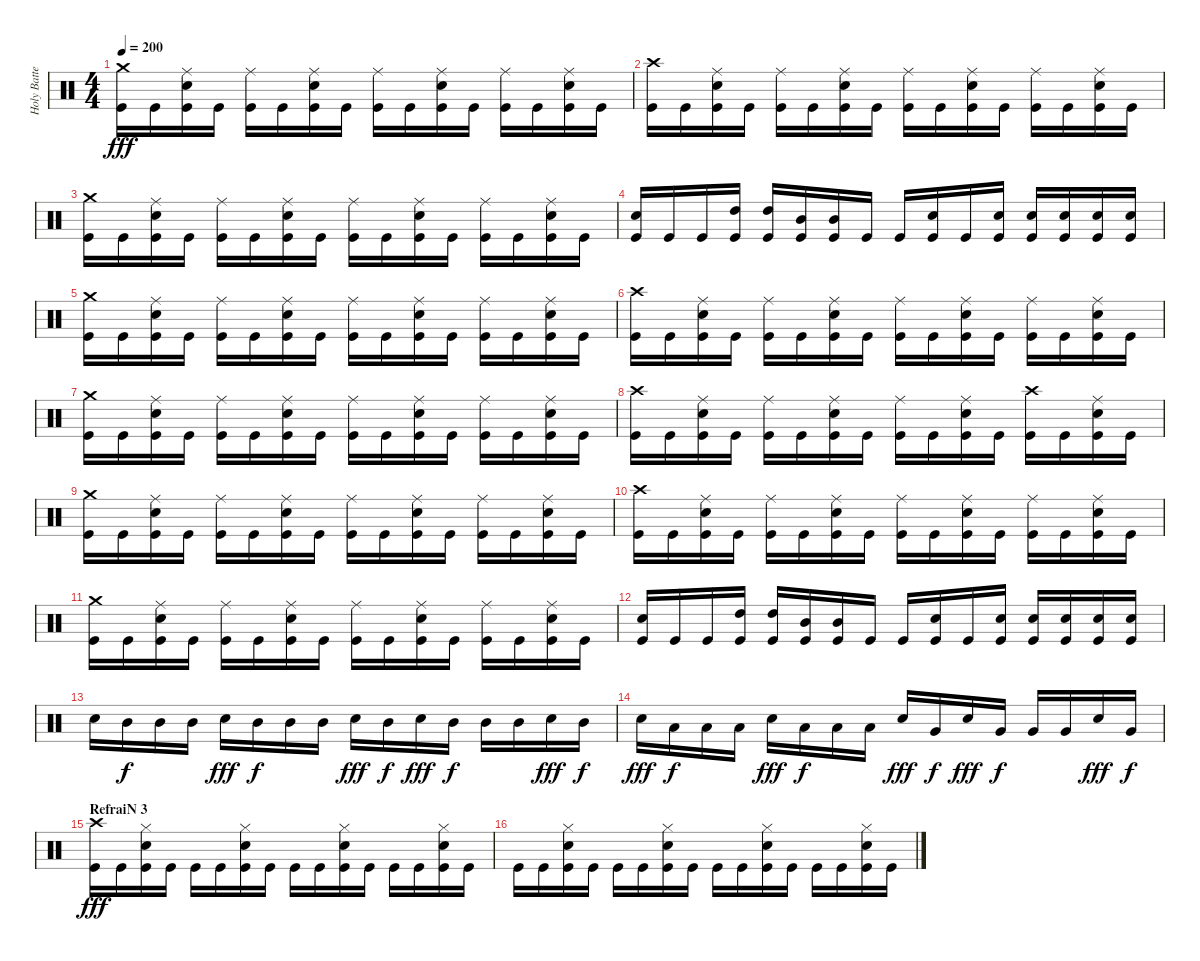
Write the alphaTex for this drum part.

\track ("Holy Batteur" "Holy Batte") {instrument percussion}
\staff {score}
\articulation defaults
\ts (4 4)
\tempo 200
\clef neutral
\ks c
("Crash medium (hit)" "Kick (hit)").16{dy fff} "Kick (hit)".16 ("Ride (middle)" "Electric Snare (hit)" "Kick (hit)").16 "Kick (hit)".16 ("Ride (middle)" "Kick (hit)").16 "Kick (hit)".16 ("Ride (middle)" "Electric Snare (hit)" "Kick (hit)").16 "Kick (hit)".16 ("Ride (middle)" "Kick (hit)").16 "Kick (hit)".16 ("Ride (middle)" "Electric Snare (hit)" "Kick (hit)").16 "Kick (hit)".16 ("Ride (middle)" "Kick (hit)").16 "Kick (hit)".16 ("Ride (middle)" "Electric Snare (hit)" "Kick (hit)").16 "Kick (hit)".16 |
("Crash high (hit)" "Kick (hit)").16 "Kick (hit)".16 ("Ride (middle)" "Electric Snare (hit)" "Kick (hit)").16 "Kick (hit)".16 ("Ride (middle)" "Kick (hit)").16 "Kick (hit)".16 ("Ride (middle)" "Electric Snare (hit)" "Kick (hit)").16 "Kick (hit)".16 ("Ride (middle)" "Kick (hit)").16 "Kick (hit)".16 ("Ride (middle)" "Electric Snare (hit)" "Kick (hit)").16 "Kick (hit)".16 ("Ride (middle)" "Kick (hit)").16 "Kick (hit)".16 ("Ride (middle)" "Electric Snare (hit)" "Kick (hit)").16 "Kick (hit)".16 |
("Crash medium (hit)" "Kick (hit)").16 "Kick (hit)".16 ("Ride (middle)" "Electric Snare (hit)" "Kick (hit)").16 "Kick (hit)".16 ("Ride (middle)" "Kick (hit)").16 "Kick (hit)".16 ("Ride (middle)" "Electric Snare (hit)" "Kick (hit)").16 "Kick (hit)".16 ("Ride (middle)" "Kick (hit)").16 "Kick (hit)".16 ("Ride (middle)" "Electric Snare (hit)" "Kick (hit)").16 "Kick (hit)".16 ("Ride (middle)" "Kick (hit)").16 "Kick (hit)".16 ("Ride (middle)" "Electric Snare (hit)" "Kick (hit)").16 "Kick (hit)".16 |
("Electric Snare (hit)" "Kick (hit)").16 "Kick (hit)".16 "Kick (hit)".16 ("High Tom (hit)" "Kick (hit)").16 ("High Tom (hit)" "Kick (hit)").16 ("Mid Tom (hit)" "Kick (hit)").16 ("Mid Tom (hit)" "Kick (hit)").16 "Kick (hit)".16 "Kick (hit)".16 ("Electric Snare (hit)" "Kick (hit)").16 "Kick (hit)".16 ("Electric Snare (hit)" "Kick (hit)").16 ("Electric Snare (hit)" "Kick (hit)").16 ("Electric Snare (hit)" "Kick (hit)").16 ("Electric Snare (hit)" "Kick (hit)").16 ("Electric Snare (hit)" "Kick (hit)").16 |
("Crash medium (hit)" "Kick (hit)").16 "Kick (hit)".16 ("Ride (middle)" "Electric Snare (hit)" "Kick (hit)").16 "Kick (hit)".16 ("Ride (middle)" "Kick (hit)").16 "Kick (hit)".16 ("Ride (middle)" "Electric Snare (hit)" "Kick (hit)").16 "Kick (hit)".16 ("Ride (middle)" "Kick (hit)").16 "Kick (hit)".16 ("Ride (middle)" "Electric Snare (hit)" "Kick (hit)").16 "Kick (hit)".16 ("Ride (middle)" "Kick (hit)").16 "Kick (hit)".16 ("Ride (middle)" "Electric Snare (hit)" "Kick (hit)").16 "Kick (hit)".16 |
("Crash high (hit)" "Kick (hit)").16 "Kick (hit)".16 ("Ride (middle)" "Electric Snare (hit)" "Kick (hit)").16 "Kick (hit)".16 ("Ride (middle)" "Kick (hit)").16 "Kick (hit)".16 ("Ride (middle)" "Electric Snare (hit)" "Kick (hit)").16 "Kick (hit)".16 ("Ride (middle)" "Kick (hit)").16 "Kick (hit)".16 ("Ride (middle)" "Electric Snare (hit)" "Kick (hit)").16 "Kick (hit)".16 ("Ride (middle)" "Kick (hit)").16 "Kick (hit)".16 ("Ride (middle)" "Electric Snare (hit)" "Kick (hit)").16 "Kick (hit)".16 |
("Crash medium (hit)" "Kick (hit)").16 "Kick (hit)".16 ("Ride (middle)" "Electric Snare (hit)" "Kick (hit)").16 "Kick (hit)".16 ("Ride (middle)" "Kick (hit)").16 "Kick (hit)".16 ("Ride (middle)" "Electric Snare (hit)" "Kick (hit)").16 "Kick (hit)".16 ("Ride (middle)" "Kick (hit)").16 "Kick (hit)".16 ("Ride (middle)" "Electric Snare (hit)" "Kick (hit)").16 "Kick (hit)".16 ("Ride (middle)" "Kick (hit)").16 "Kick (hit)".16 ("Ride (middle)" "Electric Snare (hit)" "Kick (hit)").16 "Kick (hit)".16 |
("Crash high (hit)" "Kick (hit)").16 "Kick (hit)".16 ("Ride (middle)" "Electric Snare (hit)" "Kick (hit)").16 "Kick (hit)".16 ("Ride (middle)" "Kick (hit)").16 "Kick (hit)".16 ("Ride (middle)" "Electric Snare (hit)" "Kick (hit)").16 "Kick (hit)".16 ("Ride (middle)" "Kick (hit)").16 "Kick (hit)".16 ("Ride (middle)" "Electric Snare (hit)" "Kick (hit)").16 "Kick (hit)".16 ("Crash high (hit)" "Kick (hit)").16 "Kick (hit)".16 ("Ride (middle)" "Electric Snare (hit)" "Kick (hit)").16 "Kick (hit)".16 |
("Crash medium (hit)" "Kick (hit)").16 "Kick (hit)".16 ("Ride (middle)" "Electric Snare (hit)" "Kick (hit)").16 "Kick (hit)".16 ("Ride (middle)" "Kick (hit)").16 "Kick (hit)".16 ("Ride (middle)" "Electric Snare (hit)" "Kick (hit)").16 "Kick (hit)".16 ("Ride (middle)" "Kick (hit)").16 "Kick (hit)".16 ("Ride (middle)" "Electric Snare (hit)" "Kick (hit)").16 "Kick (hit)".16 ("Ride (middle)" "Kick (hit)").16 "Kick (hit)".16 ("Ride (middle)" "Electric Snare (hit)" "Kick (hit)").16 "Kick (hit)".16 |
("Crash high (hit)" "Kick (hit)").16 "Kick (hit)".16 ("Ride (middle)" "Electric Snare (hit)" "Kick (hit)").16 "Kick (hit)".16 ("Ride (middle)" "Kick (hit)").16 "Kick (hit)".16 ("Ride (middle)" "Electric Snare (hit)" "Kick (hit)").16 "Kick (hit)".16 ("Ride (middle)" "Kick (hit)").16 "Kick (hit)".16 ("Ride (middle)" "Electric Snare (hit)" "Kick (hit)").16 "Kick (hit)".16 ("Ride (middle)" "Kick (hit)").16 "Kick (hit)".16 ("Ride (middle)" "Electric Snare (hit)" "Kick (hit)").16 "Kick (hit)".16 |
("Crash medium (hit)" "Kick (hit)").16 "Kick (hit)".16 ("Ride (middle)" "Electric Snare (hit)" "Kick (hit)").16 "Kick (hit)".16 ("Ride (middle)" "Kick (hit)").16 "Kick (hit)".16 ("Ride (middle)" "Electric Snare (hit)" "Kick (hit)").16 "Kick (hit)".16 ("Ride (middle)" "Kick (hit)").16 "Kick (hit)".16 ("Ride (middle)" "Electric Snare (hit)" "Kick (hit)").16 "Kick (hit)".16 ("Ride (middle)" "Kick (hit)").16 "Kick (hit)".16 ("Ride (middle)" "Electric Snare (hit)" "Kick (hit)").16 "Kick (hit)".16 |
("Electric Snare (hit)" "Kick (hit)").16 "Kick (hit)".16 "Kick (hit)".16 ("High Tom (hit)" "Kick (hit)").16 ("High Tom (hit)" "Kick (hit)").16 ("Mid Tom (hit)" "Kick (hit)").16 ("Mid Tom (hit)" "Kick (hit)").16 "Kick (hit)".16 "Kick (hit)".16 ("Electric Snare (hit)" "Kick (hit)").16 "Kick (hit)".16 ("Electric Snare (hit)" "Kick (hit)").16 ("Electric Snare (hit)" "Kick (hit)").16 ("Electric Snare (hit)" "Kick (hit)").16 ("Electric Snare (hit)" "Kick (hit)").16 ("Electric Snare (hit)" "Kick (hit)").16 |
"Electric Snare (hit)".16 "Mid Tom (hit)".16{dy f} "Mid Tom (hit)".16 "Mid Tom (hit)".16 "Electric Snare (hit)".16{dy fff} "Mid Tom (hit)".16{dy f} "Mid Tom (hit)".16 "Mid Tom (hit)".16 "Electric Snare (hit)".16{dy fff} "Mid Tom (hit)".16{dy f} "Electric Snare (hit)".16{dy fff} "Mid Tom (hit)".16{dy f} "Mid Tom (hit)".16 "Mid Tom (hit)".16 "Electric Snare (hit)".16{dy fff} "Mid Tom (hit)".16{dy f} |
"Electric Snare (hit)".16{dy fff} "Low Tom (hit)".16{dy f} "Low Tom (hit)".16 "Low Tom (hit)".16 "Electric Snare (hit)".16{dy fff} "Low Tom (hit)".16{dy f} "Low Tom (hit)".16 "Low Tom (hit)".16 "Electric Snare (hit)".16{dy fff} "Very Low Tom (hit)".16{dy f} "Electric Snare (hit)".16{dy fff} "Very Low Tom (hit)".16{dy f} "Very Low Tom (hit)".16 "Very Low Tom (hit)".16 "Electric Snare (hit)".16{dy fff} "Very Low Tom (hit)".16{dy f} |
\section ("" "RefraiN 3")
("Crash high (hit)" "Kick (hit)").16{dy fff} "Kick (hit)".16 ("Hi-Hat (closed)" "Electric Snare (hit)" "Kick (hit)").16 "Kick (hit)".16 "Kick (hit)".16 "Kick (hit)".16 ("Hi-Hat (closed)" "Electric Snare (hit)" "Kick (hit)").16 "Kick (hit)".16 "Kick (hit)".16 "Kick (hit)".16 ("Hi-Hat (closed)" "Electric Snare (hit)" "Kick (hit)").16 "Kick (hit)".16 "Kick (hit)".16 "Kick (hit)".16 ("Hi-Hat (closed)" "Electric Snare (hit)" "Kick (hit)").16 "Kick (hit)".16 |
"Kick (hit)".16 "Kick (hit)".16 ("Hi-Hat (closed)" "Electric Snare (hit)" "Kick (hit)").16 "Kick (hit)".16 "Kick (hit)".16 "Kick (hit)".16 ("Hi-Hat (closed)" "Electric Snare (hit)" "Kick (hit)").16 "Kick (hit)".16 "Kick (hit)".16 "Kick (hit)".16 ("Hi-Hat (closed)" "Electric Snare (hit)" "Kick (hit)").16 "Kick (hit)".16 "Kick (hit)".16 "Kick (hit)".16 ("Hi-Hat (closed)" "Electric Snare (hit)" "Kick (hit)").16 "Kick (hit)".16
